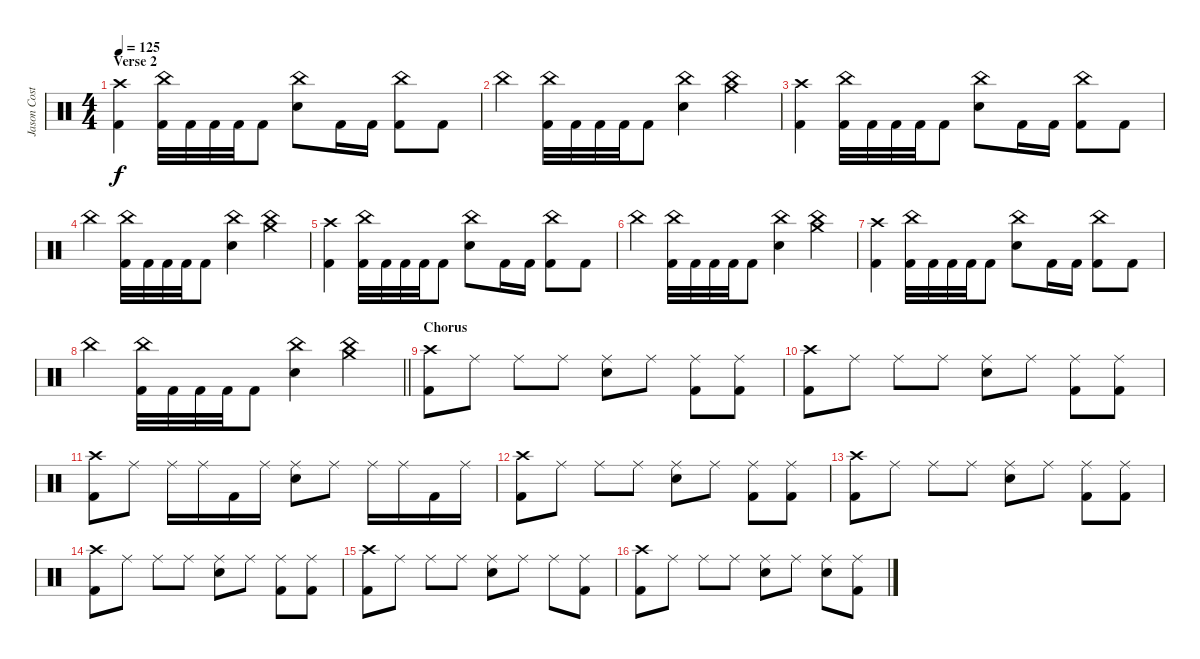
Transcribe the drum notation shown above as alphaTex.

\track ("Jason Costa" "Jason Cost") {instrument percussion}
\staff {score}
\articulation defaults
\ts (4 4)
\section ("" "Verse 2")
\tempo 125
\clef neutral
\ks c
("Crash high (hit)" "Kick (hit) 2").4{dy f} ("China (hit)" "Kick (hit) 2").32 "Kick (hit) 2".32 "Kick (hit) 2".32 "Kick (hit) 2".32 "Kick (hit) 2".8 ("China (hit)" "Electric Snare (hit)").8 "Kick (hit) 2".16 "Kick (hit) 2".16 ("China (hit)" "Kick (hit) 2").8 "Kick (hit) 2".8 |
"China (hit)".4 ("China (hit)" "Kick (hit) 2").32 "Kick (hit) 2".32 "Kick (hit) 2".32 "Kick (hit) 2".32 "Kick (hit) 2".8 ("China (hit)" "Electric Snare (hit)").4 ("China (hit)" "Crash medium (hit)").4 |
("Crash high (hit)" "Kick (hit) 2").4 ("China (hit)" "Kick (hit) 2").32 "Kick (hit) 2".32 "Kick (hit) 2".32 "Kick (hit) 2".32 "Kick (hit) 2".8 ("China (hit)" "Electric Snare (hit)").8 "Kick (hit) 2".16 "Kick (hit) 2".16 ("China (hit)" "Kick (hit) 2").8 "Kick (hit) 2".8 |
"China (hit)".4 ("China (hit)" "Kick (hit) 2").32 "Kick (hit) 2".32 "Kick (hit) 2".32 "Kick (hit) 2".32 "Kick (hit) 2".8 ("China (hit)" "Electric Snare (hit)").4 ("China (hit)" "Crash medium (hit)").4 |
("Crash high (hit)" "Kick (hit) 2").4 ("China (hit)" "Kick (hit) 2").32 "Kick (hit) 2".32 "Kick (hit) 2".32 "Kick (hit) 2".32 "Kick (hit) 2".8 ("China (hit)" "Electric Snare (hit)").8 "Kick (hit) 2".16 "Kick (hit) 2".16 ("China (hit)" "Kick (hit) 2").8 "Kick (hit) 2".8 |
"China (hit)".4 ("China (hit)" "Kick (hit) 2").32 "Kick (hit) 2".32 "Kick (hit) 2".32 "Kick (hit) 2".32 "Kick (hit) 2".8 ("China (hit)" "Electric Snare (hit)").4 ("China (hit)" "Crash medium (hit)").4 |
("Crash high (hit)" "Kick (hit) 2").4 ("China (hit)" "Kick (hit) 2").32 "Kick (hit) 2".32 "Kick (hit) 2".32 "Kick (hit) 2".32 "Kick (hit) 2".8 ("China (hit)" "Electric Snare (hit)").8 "Kick (hit) 2".16 "Kick (hit) 2".16 ("China (hit)" "Kick (hit) 2").8 "Kick (hit) 2".8 |
\barLineRight lightlight "China (hit)".4
("China (hit)" "Kick (hit) 2").32 "Kick (hit) 2".32 "Kick (hit) 2".32 "Kick (hit) 2".32 "Kick (hit) 2".8 ("China (hit)" "Electric Snare (hit)").4 ("China (hit)" "Crash medium (hit)").4 |
\section ("" "Chorus")
("Crash high (hit)" "Kick (hit) 2").8 "Ride (middle)".8 "Ride (middle)".8 "Ride (middle)".8 ("Ride (middle)" "Electric Snare (hit)").8 "Ride (middle)".8 ("Ride (middle)" "Kick (hit) 2").8 ("Ride (middle)" "Kick (hit) 2").8 |
("Crash high (hit)" "Kick (hit) 2").8 "Ride (middle)".8 "Ride (middle)".8 "Ride (middle)".8 ("Ride (middle)" "Electric Snare (hit)").8 "Ride (middle)".8 ("Ride (middle)" "Kick (hit) 2").8 ("Ride (middle)" "Kick (hit) 2").8 |
("Crash high (hit)" "Kick (hit) 2").8 "Ride (middle)".8 "Ride (middle)".16 "Ride (middle)".16 "Kick (hit) 2".16 "Ride (middle)".16 ("Ride (middle)" "Electric Snare (hit)").8 "Ride (middle)".8 "Ride (middle)".16 "Ride (middle)".16 "Kick (hit) 2".16 "Ride (middle)".16 |
("Crash high (hit)" "Kick (hit) 2").8 "Ride (middle)".8 "Ride (middle)".8 "Ride (middle)".8 ("Ride (middle)" "Electric Snare (hit)").8 "Ride (middle)".8 ("Ride (middle)" "Kick (hit) 2").8 ("Ride (middle)" "Kick (hit) 2").8 |
("Crash high (hit)" "Kick (hit) 2").8 "Ride (middle)".8 "Ride (middle)".8 "Ride (middle)".8 ("Ride (middle)" "Electric Snare (hit)").8 "Ride (middle)".8 ("Ride (middle)" "Kick (hit) 2").8 ("Ride (middle)" "Kick (hit) 2").8 |
("Crash high (hit)" "Kick (hit) 2").8 "Ride (middle)".8 "Ride (middle)".8 "Ride (middle)".8 ("Ride (middle)" "Electric Snare (hit)").8 "Ride (middle)".8 ("Ride (middle)" "Kick (hit) 2").8 ("Ride (middle)" "Kick (hit) 2").8 |
("Crash high (hit)" "Kick (hit) 2").8 "Ride (middle)".8 "Ride (middle)".8 "Ride (middle)".8 ("Ride (middle)" "Electric Snare (hit)").8 "Ride (middle)".8 "Ride (middle)".8 ("Ride (middle)" "Kick (hit) 2").8 |
("Crash high (hit)" "Kick (hit) 2").8 "Ride (middle)".8 "Ride (middle)".8 "Ride (middle)".8 ("Ride (middle)" "Electric Snare (hit)").8 "Ride (middle)".8 ("Ride (middle)" "Electric Snare (hit)").8 ("Ride (middle)" "Kick (hit) 2").8
